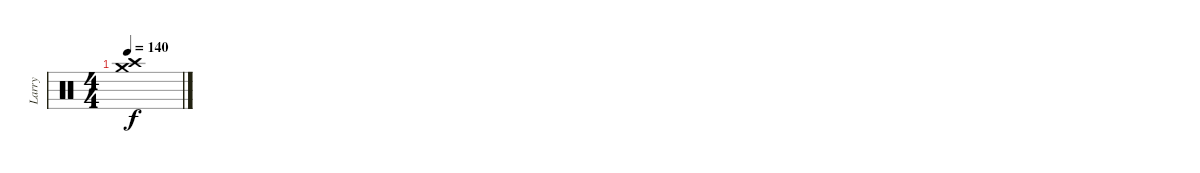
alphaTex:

\track ("Larry" "Larry") {instrument percussion}
\staff {score}
\articulation defaults
\ts (4 4)
\tempo 140
\clef neutral
\ks c
("Crash medium (hit)" "Crash high (hit)").1{dy f}
